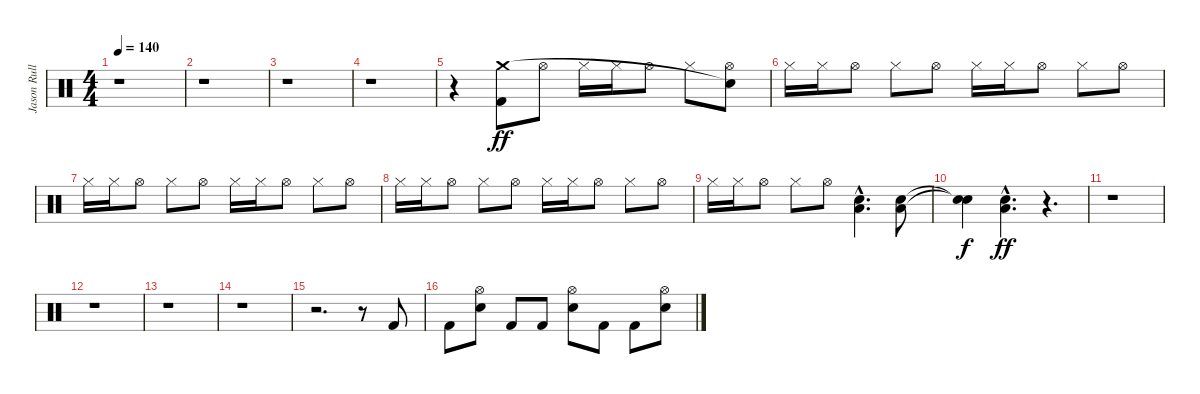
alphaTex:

\track ("Jason Rullo" "Jason Rull") {instrument percussion}
\staff {score}
\articulation defaults
\ts (4 4)
\tempo 140
\clef neutral
\ks c
r.1{dy ff} |
r.1 |
r.1 |
r.1 |
r.4 ("Kick (hit) 2" "Crash medium (hit)").8 "Hi-Hat (open)".8 "Hi-Hat (closed)".16 "Hi-Hat (closed)".16 "Hi-Hat (open)".8 "Hi-Hat (closed)".8 ("Hi-Hat (open)" "Snare (hit)"{t}).8 |
"Hi-Hat (closed)".16 "Hi-Hat (closed)".16 "Hi-Hat (open)".8 "Hi-Hat (closed)".8 "Hi-Hat (open)".8 "Hi-Hat (closed)".16 "Hi-Hat (closed)".16 "Hi-Hat (open)".8 "Hi-Hat (closed)".8 "Hi-Hat (open)".8 |
"Hi-Hat (closed)".16 "Hi-Hat (closed)".16 "Hi-Hat (open)".8 "Hi-Hat (closed)".8 "Hi-Hat (open)".8 "Hi-Hat (closed)".16 "Hi-Hat (closed)".16 "Hi-Hat (open)".8 "Hi-Hat (closed)".8 "Hi-Hat (open)".8 |
"Hi-Hat (closed)".16 "Hi-Hat (closed)".16 "Hi-Hat (open)".8 "Hi-Hat (closed)".8 "Hi-Hat (open)".8 "Hi-Hat (closed)".16 "Hi-Hat (closed)".16 "Hi-Hat (open)".8 "Hi-Hat (closed)".8 "Hi-Hat (open)".8 |
"Hi-Hat (closed)".16 "Hi-Hat (closed)".16 "Hi-Hat (open)".8 "Hi-Hat (closed)".8 "Hi-Hat (open)".8 ("Electric Snare (hit)"{hac} "Low Tom (hit)"{hac}).4{d} ("Electric Snare (hit)" "Low Tom (hit)").8 |
("Snare (hit)"{t} "Snare (hit)"{t}).4{dy f} ("Electric Snare (hit)"{hac} "Low Tom (hit)"{hac}).4{d dy ff} r.4{d} |
r.1 |
r.1 |
r.1 |
r.1 |
r.2{d} r.8 "Kick (hit) 2".8{volume 3} |
"Kick (hit) 2".8 ("Electric Snare (hit)" "Hi-Hat (open)").8 "Kick (hit) 2".8{volume 3} "Kick (hit) 2".8 ("Electric Snare (hit)" "Hi-Hat (open)").8 "Kick (hit) 2".8{volume 4} "Kick (hit) 2".8 ("Electric Snare (hit)" "Hi-Hat (open)").8
